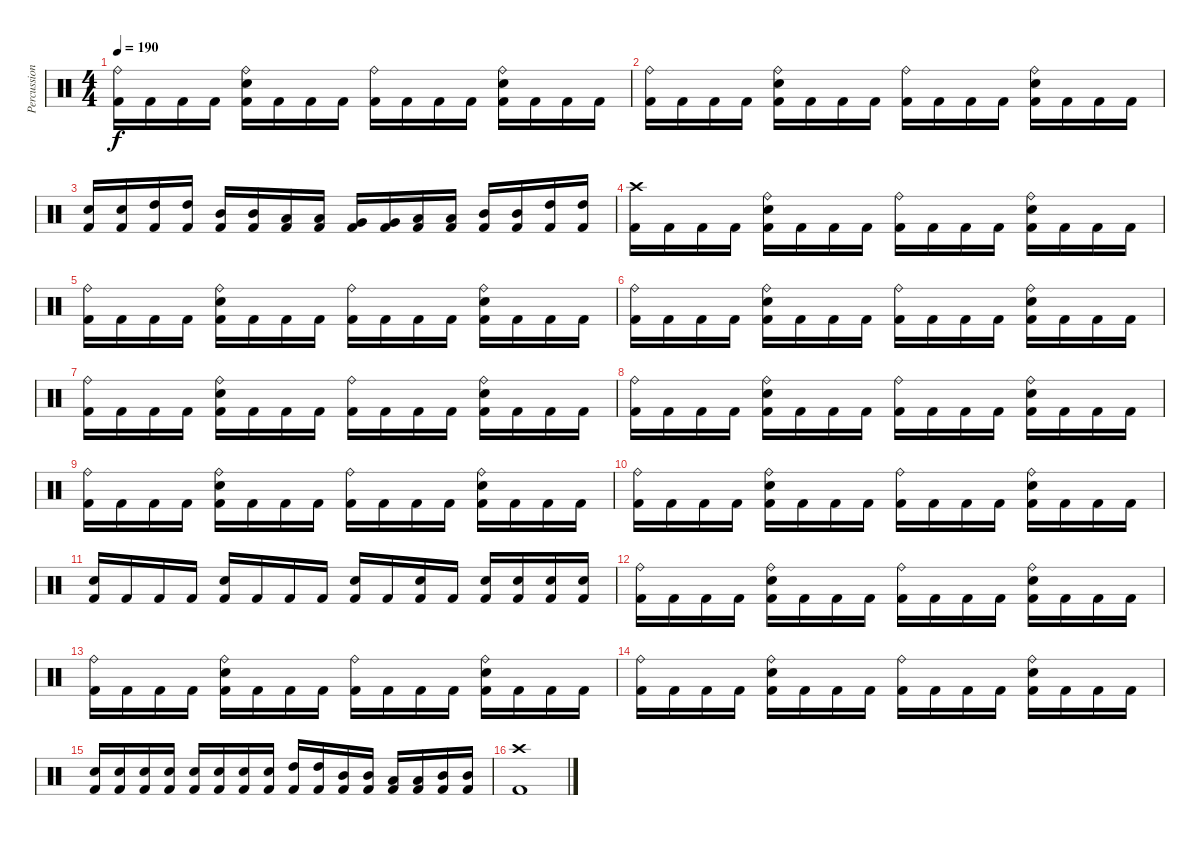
\track ("Percussion" "Percussion") {instrument percussion}
\staff {score}
\articulation defaults
\ts (4 4)
\tempo 190
\clef neutral
\ks c
("Ride (bell)" "Kick (hit) 2").16{dy f} "Kick (hit) 2".16 "Kick (hit) 2".16 "Kick (hit) 2".16 ("Ride (bell)" "Snare (hit) 2" "Kick (hit) 2").16 "Kick (hit) 2".16 "Kick (hit) 2".16 "Kick (hit) 2".16 ("Ride (bell)" "Kick (hit) 2").16 "Kick (hit) 2".16 "Kick (hit) 2".16 "Kick (hit) 2".16 ("Ride (bell)" "Snare (hit) 2" "Kick (hit) 2").16 "Kick (hit) 2".16 "Kick (hit) 2".16 "Kick (hit) 2".16 |
("Ride (bell)" "Kick (hit) 2").16 "Kick (hit) 2".16 "Kick (hit) 2".16 "Kick (hit) 2".16 ("Ride (bell)" "Snare (hit) 2" "Kick (hit) 2").16 "Kick (hit) 2".16 "Kick (hit) 2".16 "Kick (hit) 2".16 ("Ride (bell)" "Kick (hit) 2").16 "Kick (hit) 2".16 "Kick (hit) 2".16 "Kick (hit) 2".16 ("Ride (bell)" "Snare (hit) 2" "Kick (hit) 2").16 "Kick (hit) 2".16 "Kick (hit) 2".16 "Kick (hit) 2".16 |
("Snare (hit) 2" "Kick (hit) 2").16 ("Snare (hit) 2" "Kick (hit) 2").16 ("High Tom (hit)" "Kick (hit) 2").16 ("High Tom (hit)" "Kick (hit) 2").16 ("Mid Tom (hit)" "Kick (hit) 2").16 ("Mid Tom (hit)" "Kick (hit) 2").16 ("Low Tom (hit)" "Kick (hit) 2").16 ("Low Tom (hit)" "Kick (hit) 2").16 ("Very Low Tom (hit)" "Kick (hit) 2").16 ("Very Low Tom (hit)" "Kick (hit) 2").16 ("Low Tom (hit)" "Kick (hit) 2").16 ("Low Tom (hit)" "Kick (hit) 2").16 ("Mid Tom (hit)" "Kick (hit) 2").16 ("Mid Tom (hit)" "Kick (hit) 2").16 ("High Tom (hit)" "Kick (hit) 2").16 ("High Tom (hit)" "Kick (hit) 2").16 |
("Crash high (hit)" "Kick (hit) 2").16 "Kick (hit) 2".16 "Kick (hit) 2".16 "Kick (hit) 2".16 ("Ride (bell)" "Snare (hit) 2" "Kick (hit) 2").16 "Kick (hit) 2".16 "Kick (hit) 2".16 "Kick (hit) 2".16 ("Ride (bell)" "Kick (hit) 2").16 "Kick (hit) 2".16 "Kick (hit) 2".16 "Kick (hit) 2".16 ("Ride (bell)" "Snare (hit) 2" "Kick (hit) 2").16 "Kick (hit) 2".16 "Kick (hit) 2".16 "Kick (hit) 2".16 |
("Ride (bell)" "Kick (hit) 2").16 "Kick (hit) 2".16 "Kick (hit) 2".16 "Kick (hit) 2".16 ("Ride (bell)" "Snare (hit) 2" "Kick (hit) 2").16 "Kick (hit) 2".16 "Kick (hit) 2".16 "Kick (hit) 2".16 ("Ride (bell)" "Kick (hit) 2").16 "Kick (hit) 2".16 "Kick (hit) 2".16 "Kick (hit) 2".16 ("Ride (bell)" "Snare (hit) 2" "Kick (hit) 2").16 "Kick (hit) 2".16 "Kick (hit) 2".16 "Kick (hit) 2".16 |
("Ride (bell)" "Kick (hit) 2").16 "Kick (hit) 2".16 "Kick (hit) 2".16 "Kick (hit) 2".16 ("Ride (bell)" "Snare (hit) 2" "Kick (hit) 2").16 "Kick (hit) 2".16 "Kick (hit) 2".16 "Kick (hit) 2".16 ("Ride (bell)" "Kick (hit) 2").16 "Kick (hit) 2".16 "Kick (hit) 2".16 "Kick (hit) 2".16 ("Ride (bell)" "Snare (hit) 2" "Kick (hit) 2").16 "Kick (hit) 2".16 "Kick (hit) 2".16 "Kick (hit) 2".16 |
("Ride (bell)" "Kick (hit) 2").16 "Kick (hit) 2".16 "Kick (hit) 2".16 "Kick (hit) 2".16 ("Ride (bell)" "Snare (hit) 2" "Kick (hit) 2").16 "Kick (hit) 2".16 "Kick (hit) 2".16 "Kick (hit) 2".16 ("Ride (bell)" "Kick (hit) 2").16 "Kick (hit) 2".16 "Kick (hit) 2".16 "Kick (hit) 2".16 ("Ride (bell)" "Snare (hit) 2" "Kick (hit) 2").16 "Kick (hit) 2".16 "Kick (hit) 2".16 "Kick (hit) 2".16 |
("Ride (bell)" "Kick (hit) 2").16 "Kick (hit) 2".16 "Kick (hit) 2".16 "Kick (hit) 2".16 ("Ride (bell)" "Snare (hit) 2" "Kick (hit) 2").16 "Kick (hit) 2".16 "Kick (hit) 2".16 "Kick (hit) 2".16 ("Ride (bell)" "Kick (hit) 2").16 "Kick (hit) 2".16 "Kick (hit) 2".16 "Kick (hit) 2".16 ("Ride (bell)" "Snare (hit) 2" "Kick (hit) 2").16 "Kick (hit) 2".16 "Kick (hit) 2".16 "Kick (hit) 2".16 |
("Ride (bell)" "Kick (hit) 2").16 "Kick (hit) 2".16 "Kick (hit) 2".16 "Kick (hit) 2".16 ("Ride (bell)" "Snare (hit) 2" "Kick (hit) 2").16 "Kick (hit) 2".16 "Kick (hit) 2".16 "Kick (hit) 2".16 ("Ride (bell)" "Kick (hit) 2").16 "Kick (hit) 2".16 "Kick (hit) 2".16 "Kick (hit) 2".16 ("Ride (bell)" "Snare (hit) 2" "Kick (hit) 2").16 "Kick (hit) 2".16 "Kick (hit) 2".16 "Kick (hit) 2".16 |
("Ride (bell)" "Kick (hit) 2").16 "Kick (hit) 2".16 "Kick (hit) 2".16 "Kick (hit) 2".16 ("Ride (bell)" "Snare (hit) 2" "Kick (hit) 2").16 "Kick (hit) 2".16 "Kick (hit) 2".16 "Kick (hit) 2".16 ("Ride (bell)" "Kick (hit) 2").16 "Kick (hit) 2".16 "Kick (hit) 2".16 "Kick (hit) 2".16 ("Ride (bell)" "Snare (hit) 2" "Kick (hit) 2").16 "Kick (hit) 2".16 "Kick (hit) 2".16 "Kick (hit) 2".16 |
("Snare (hit) 2" "Kick (hit) 2").16 "Kick (hit) 2".16 "Kick (hit) 2".16 "Kick (hit) 2".16 ("Snare (hit) 2" "Kick (hit) 2").16 "Kick (hit) 2".16 "Kick (hit) 2".16 "Kick (hit) 2".16 ("Snare (hit) 2" "Kick (hit) 2").16 "Kick (hit) 2".16 ("Snare (hit) 2" "Kick (hit) 2").16 "Kick (hit) 2".16 ("Snare (hit) 2" "Kick (hit) 2").16 ("Snare (hit) 2" "Kick (hit) 2").16 ("Snare (hit) 2" "Kick (hit) 2").16 ("Snare (hit) 2" "Kick (hit) 2").16 |
("Ride (bell)" "Kick (hit) 2").16 "Kick (hit) 2".16 "Kick (hit) 2".16 "Kick (hit) 2".16 ("Ride (bell)" "Snare (hit) 2" "Kick (hit) 2").16 "Kick (hit) 2".16 "Kick (hit) 2".16 "Kick (hit) 2".16 ("Ride (bell)" "Kick (hit) 2").16 "Kick (hit) 2".16 "Kick (hit) 2".16 "Kick (hit) 2".16 ("Ride (bell)" "Snare (hit) 2" "Kick (hit) 2").16 "Kick (hit) 2".16 "Kick (hit) 2".16 "Kick (hit) 2".16 |
("Ride (bell)" "Kick (hit) 2").16 "Kick (hit) 2".16 "Kick (hit) 2".16 "Kick (hit) 2".16 ("Ride (bell)" "Snare (hit) 2" "Kick (hit) 2").16 "Kick (hit) 2".16 "Kick (hit) 2".16 "Kick (hit) 2".16 ("Ride (bell)" "Kick (hit) 2").16 "Kick (hit) 2".16 "Kick (hit) 2".16 "Kick (hit) 2".16 ("Ride (bell)" "Snare (hit) 2" "Kick (hit) 2").16 "Kick (hit) 2".16 "Kick (hit) 2".16 "Kick (hit) 2".16 |
("Ride (bell)" "Kick (hit) 2").16 "Kick (hit) 2".16 "Kick (hit) 2".16 "Kick (hit) 2".16 ("Ride (bell)" "Snare (hit) 2" "Kick (hit) 2").16 "Kick (hit) 2".16 "Kick (hit) 2".16 "Kick (hit) 2".16 ("Ride (bell)" "Kick (hit) 2").16 "Kick (hit) 2".16 "Kick (hit) 2".16 "Kick (hit) 2".16 ("Ride (bell)" "Snare (hit) 2" "Kick (hit) 2").16 "Kick (hit) 2".16 "Kick (hit) 2".16 "Kick (hit) 2".16 |
("Snare (hit) 2" "Kick (hit) 2").16 ("Snare (hit) 2" "Kick (hit) 2").16 ("Snare (hit) 2" "Kick (hit) 2").16 ("Snare (hit) 2" "Kick (hit) 2").16 ("Snare (hit) 2" "Kick (hit) 2").16 ("Snare (hit) 2" "Kick (hit) 2").16 ("Snare (hit) 2" "Kick (hit) 2").16 ("Snare (hit) 2" "Kick (hit) 2").16 ("High Tom (hit)" "Kick (hit) 2").16 ("High Tom (hit)" "Kick (hit) 2").16 ("Mid Tom (hit)" "Kick (hit) 2").16 ("Mid Tom (hit)" "Kick (hit) 2").16 ("Low Tom (hit)" "Kick (hit) 2").16 ("Low Tom (hit)" "Kick (hit) 2").16 ("Mid Tom (hit)" "Kick (hit) 2").16 ("Mid Tom (hit)" "Kick (hit) 2").16 |
("Crash high (hit)" "Kick (hit) 2").1
